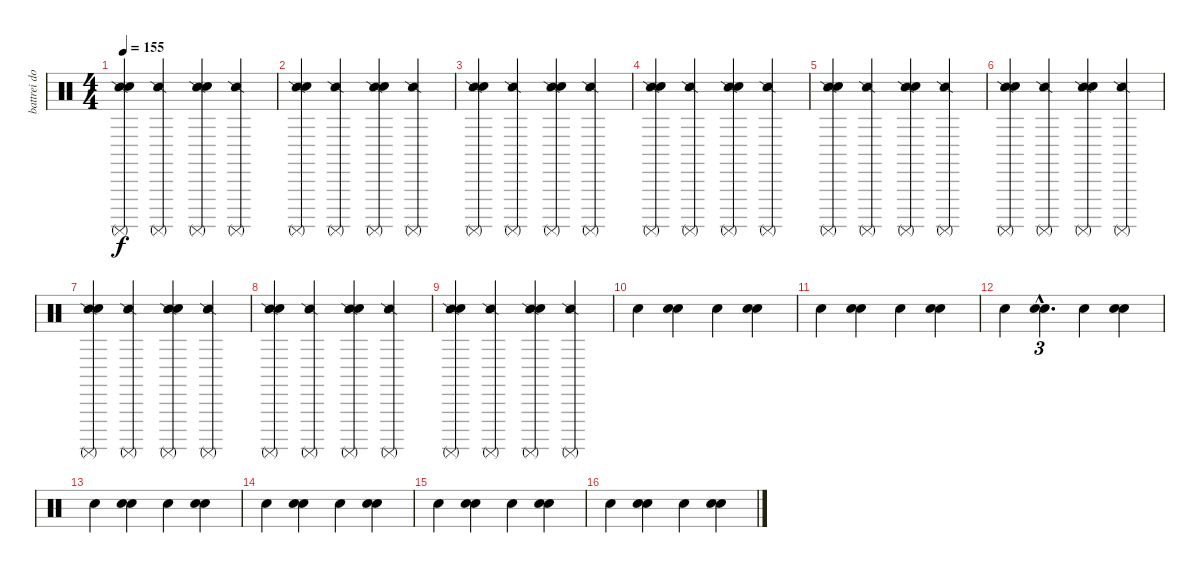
\track ("battrei dom" "battrei do") {instrument percussion}
\staff {score}
\articulation defaults
\ts (4 4)
\tempo 155
\clef neutral
\ks c
("Snare (side stick) 2" "Snare (hit) 2" "Surdo (mute)").4{dy f} ("Snare (side stick) 2" "Surdo (mute)").4 ("Snare (side stick) 2" "Snare (hit) 2" "Surdo (mute)").4 ("Snare (side stick) 2" "Surdo (mute)").4 |
("Snare (side stick) 2" "Snare (hit) 2" "Surdo (mute)").4 ("Snare (side stick) 2" "Surdo (mute)").4 ("Snare (side stick) 2" "Snare (hit) 2" "Surdo (mute)").4 ("Snare (side stick) 2" "Surdo (mute)").4 |
("Snare (side stick) 2" "Snare (hit) 2" "Surdo (mute)").4 ("Snare (side stick) 2" "Surdo (mute)").4 ("Snare (side stick) 2" "Snare (hit) 2" "Surdo (mute)").4 ("Snare (side stick) 2" "Surdo (mute)").4 |
("Snare (side stick) 2" "Snare (hit) 2" "Surdo (mute)").4 ("Snare (side stick) 2" "Surdo (mute)").4 ("Snare (side stick) 2" "Snare (hit) 2" "Surdo (mute)").4 ("Snare (side stick) 2" "Surdo (mute)").4 |
("Snare (side stick) 2" "Snare (hit) 2" "Surdo (mute)").4 ("Snare (side stick) 2" "Surdo (mute)").4 ("Snare (side stick) 2" "Snare (hit) 2" "Surdo (mute)").4 ("Snare (side stick) 2" "Surdo (mute)").4 |
("Snare (side stick) 2" "Snare (hit) 2" "Surdo (mute)").4 ("Snare (side stick) 2" "Surdo (mute)").4 ("Snare (side stick) 2" "Snare (hit) 2" "Surdo (mute)").4 ("Snare (side stick) 2" "Surdo (mute)").4 |
("Snare (side stick) 2" "Snare (hit) 2" "Surdo (mute)").4 ("Snare (side stick) 2" "Surdo (mute)").4 ("Snare (side stick) 2" "Snare (hit) 2" "Surdo (mute)").4 ("Snare (side stick) 2" "Surdo (mute)").4 |
("Snare (side stick) 2" "Snare (hit) 2" "Surdo (mute)").4 ("Snare (side stick) 2" "Surdo (mute)").4 ("Snare (side stick) 2" "Snare (hit) 2" "Surdo (mute)").4 ("Snare (side stick) 2" "Surdo (mute)").4 |
("Snare (side stick) 2" "Snare (hit) 2" "Surdo (mute)").4 ("Snare (side stick) 2" "Surdo (mute)").4 ("Snare (side stick) 2" "Snare (hit) 2" "Surdo (mute)").4 ("Snare (side stick) 2" "Surdo (mute)").4 |
"Snare (hit) 2".4 ("Snare (hit) 2" "Snare (hit) 2").4 "Snare (hit) 2".4 ("Snare (hit) 2" "Snare (hit) 2").4 |
"Snare (hit) 2".4 ("Snare (hit) 2" "Snare (hit) 2").4 "Snare (hit) 2".4 ("Snare (hit) 2" "Snare (hit) 2").4 |
"Snare (hit) 2".4 ("Snare (hit) 2"{hac} "Snare (hit) 2"{hac}).4{d tu (3 2)} "Snare (hit) 2".4 ("Snare (hit) 2" "Snare (hit) 2").4 |
"Snare (hit) 2".4 ("Snare (hit) 2" "Snare (hit) 2").4 "Snare (hit) 2".4 ("Snare (hit) 2" "Snare (hit) 2").4 |
"Snare (hit) 2".4 ("Snare (hit) 2" "Snare (hit) 2").4 "Snare (hit) 2".4 ("Snare (hit) 2" "Snare (hit) 2").4 |
"Snare (hit) 2".4 ("Snare (hit) 2" "Snare (hit) 2").4 "Snare (hit) 2".4 ("Snare (hit) 2" "Snare (hit) 2").4 |
"Snare (hit) 2".4 ("Snare (hit) 2" "Snare (hit) 2").4 "Snare (hit) 2".4 ("Snare (hit) 2" "Snare (hit) 2").4
